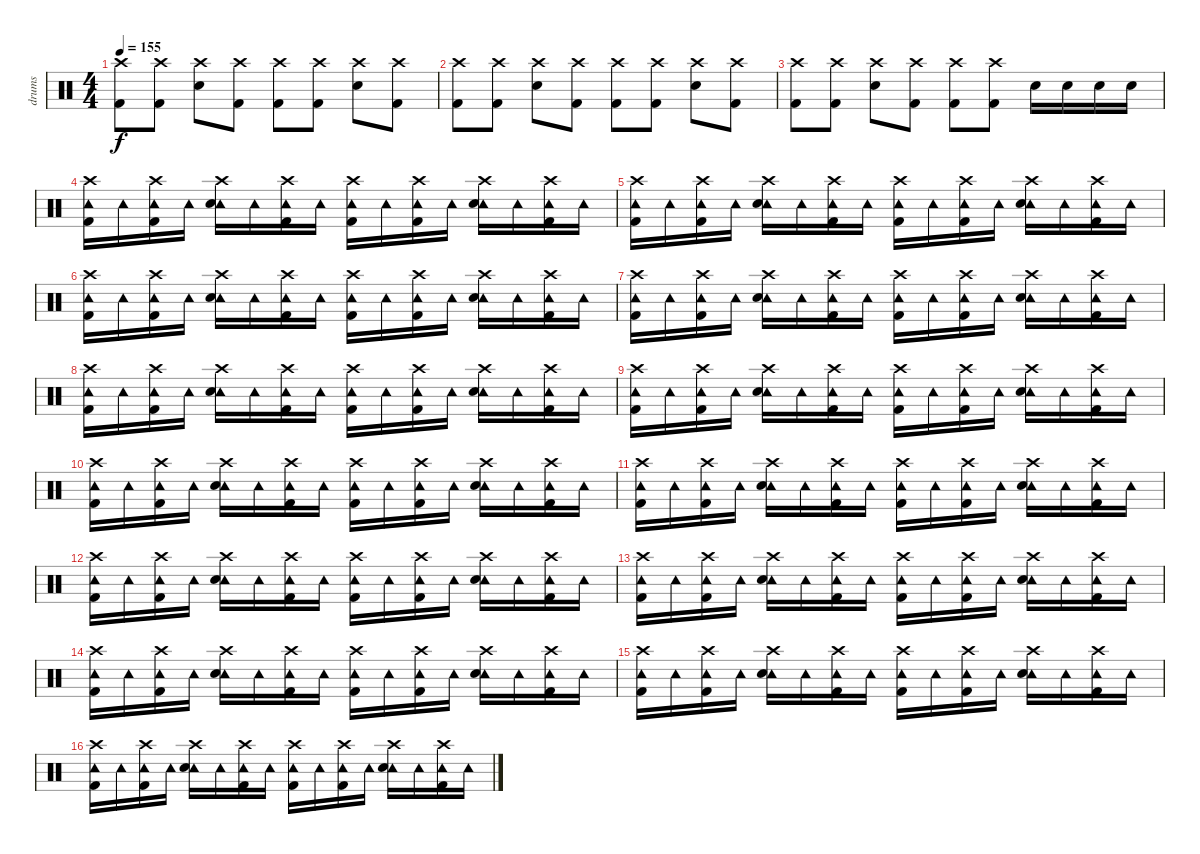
\track ("drums" "drums") {instrument percussion}
\staff {score}
\articulation defaults
\ts (4 4)
\tempo 155
\clef neutral
\ks c
("Crash high (hit)" "Kick (hit) 2").8{dy f} ("Crash high (hit)" "Kick (hit) 2").8 ("Crash high (hit)" "Snare (hit) 2").8 ("Crash high (hit)" "Kick (hit) 2").8 ("Crash high (hit)" "Kick (hit) 2").8 ("Crash high (hit)" "Kick (hit) 2").8 ("Crash high (hit)" "Snare (hit) 2").8 ("Crash high (hit)" "Kick (hit) 2").8 |
("Crash high (hit)" "Kick (hit) 2").8 ("Crash high (hit)" "Kick (hit) 2").8 ("Crash high (hit)" "Snare (hit) 2").8 ("Crash high (hit)" "Kick (hit) 2").8 ("Crash high (hit)" "Kick (hit) 2").8 ("Crash high (hit)" "Kick (hit) 2").8 ("Crash high (hit)" "Snare (hit) 2").8 ("Crash high (hit)" "Kick (hit) 2").8 |
("Crash high (hit)" "Kick (hit) 2").8 ("Crash high (hit)" "Kick (hit) 2").8 ("Crash high (hit)" "Snare (hit) 2").8 ("Crash high (hit)" "Kick (hit) 2").8 ("Crash high (hit)" "Kick (hit) 2").8 ("Crash high (hit)" "Kick (hit) 2").8 "Snare (hit) 2".16 "Snare (hit) 2".16 "Snare (hit) 2".16 "Snare (hit) 2".16 |
("Tambourine (hit)" "Crash high (hit)" "Kick (hit) 2").16 "Tambourine (hit)".16 ("Tambourine (hit)" "Crash high (hit)" "Kick (hit) 2").16 "Tambourine (hit)".16 ("Tambourine (hit)" "Crash high (hit)" "Snare (hit) 2").16 "Tambourine (hit)".16 ("Tambourine (hit)" "Crash high (hit)" "Kick (hit) 2").16 "Tambourine (hit)".16 ("Tambourine (hit)" "Crash high (hit)" "Kick (hit) 2").16 "Tambourine (hit)".16 ("Tambourine (hit)" "Crash high (hit)" "Kick (hit) 2").16 "Tambourine (hit)".16 ("Tambourine (hit)" "Crash high (hit)" "Snare (hit) 2").16 "Tambourine (hit)".16 ("Tambourine (hit)" "Crash high (hit)" "Kick (hit) 2").16 "Tambourine (hit)".16 |
("Tambourine (hit)" "Crash high (hit)" "Kick (hit) 2").16 "Tambourine (hit)".16 ("Tambourine (hit)" "Crash high (hit)" "Kick (hit) 2").16 "Tambourine (hit)".16 ("Tambourine (hit)" "Crash high (hit)" "Snare (hit) 2").16 "Tambourine (hit)".16 ("Tambourine (hit)" "Crash high (hit)" "Kick (hit) 2").16 "Tambourine (hit)".16 ("Tambourine (hit)" "Crash high (hit)" "Kick (hit) 2").16 "Tambourine (hit)".16 ("Tambourine (hit)" "Crash high (hit)" "Kick (hit) 2").16 "Tambourine (hit)".16 ("Tambourine (hit)" "Crash high (hit)" "Snare (hit) 2").16 "Tambourine (hit)".16 ("Tambourine (hit)" "Crash high (hit)" "Kick (hit) 2").16 "Tambourine (hit)".16 |
("Tambourine (hit)" "Crash high (hit)" "Kick (hit) 2").16 "Tambourine (hit)".16 ("Tambourine (hit)" "Crash high (hit)" "Kick (hit) 2").16 "Tambourine (hit)".16 ("Tambourine (hit)" "Crash high (hit)" "Snare (hit) 2").16 "Tambourine (hit)".16 ("Tambourine (hit)" "Crash high (hit)" "Kick (hit) 2").16 "Tambourine (hit)".16 ("Tambourine (hit)" "Crash high (hit)" "Kick (hit) 2").16 "Tambourine (hit)".16 ("Tambourine (hit)" "Crash high (hit)" "Kick (hit) 2").16 "Tambourine (hit)".16 ("Tambourine (hit)" "Crash high (hit)" "Snare (hit) 2").16 "Tambourine (hit)".16 ("Tambourine (hit)" "Crash high (hit)" "Kick (hit) 2").16 "Tambourine (hit)".16 |
("Tambourine (hit)" "Crash high (hit)" "Kick (hit) 2").16 "Tambourine (hit)".16 ("Tambourine (hit)" "Crash high (hit)" "Kick (hit) 2").16 "Tambourine (hit)".16 ("Tambourine (hit)" "Crash high (hit)" "Snare (hit) 2").16 "Tambourine (hit)".16 ("Tambourine (hit)" "Crash high (hit)" "Kick (hit) 2").16 "Tambourine (hit)".16 ("Tambourine (hit)" "Crash high (hit)" "Kick (hit) 2").16 "Tambourine (hit)".16 ("Tambourine (hit)" "Crash high (hit)" "Kick (hit) 2").16 "Tambourine (hit)".16 ("Tambourine (hit)" "Crash high (hit)" "Snare (hit) 2").16 "Tambourine (hit)".16 ("Tambourine (hit)" "Crash high (hit)" "Kick (hit) 2").16 "Tambourine (hit)".16 |
("Tambourine (hit)" "Crash high (hit)" "Kick (hit) 2").16 "Tambourine (hit)".16 ("Tambourine (hit)" "Crash high (hit)" "Kick (hit) 2").16 "Tambourine (hit)".16 ("Tambourine (hit)" "Crash high (hit)" "Snare (hit) 2").16 "Tambourine (hit)".16 ("Tambourine (hit)" "Crash high (hit)" "Kick (hit) 2").16 "Tambourine (hit)".16 ("Tambourine (hit)" "Crash high (hit)" "Kick (hit) 2").16 "Tambourine (hit)".16 ("Tambourine (hit)" "Crash high (hit)" "Kick (hit) 2").16 "Tambourine (hit)".16 ("Tambourine (hit)" "Crash high (hit)" "Snare (hit) 2").16 "Tambourine (hit)".16 ("Tambourine (hit)" "Crash high (hit)" "Kick (hit) 2").16 "Tambourine (hit)".16 |
("Tambourine (hit)" "Crash high (hit)" "Kick (hit) 2").16 "Tambourine (hit)".16 ("Tambourine (hit)" "Crash high (hit)" "Kick (hit) 2").16 "Tambourine (hit)".16 ("Tambourine (hit)" "Crash high (hit)" "Snare (hit) 2").16 "Tambourine (hit)".16 ("Tambourine (hit)" "Crash high (hit)" "Kick (hit) 2").16 "Tambourine (hit)".16 ("Tambourine (hit)" "Crash high (hit)" "Kick (hit) 2").16 "Tambourine (hit)".16 ("Tambourine (hit)" "Crash high (hit)" "Kick (hit) 2").16 "Tambourine (hit)".16 ("Tambourine (hit)" "Crash high (hit)" "Snare (hit) 2").16 "Tambourine (hit)".16 ("Tambourine (hit)" "Crash high (hit)" "Kick (hit) 2").16 "Tambourine (hit)".16 |
("Tambourine (hit)" "Crash high (hit)" "Kick (hit) 2").16 "Tambourine (hit)".16 ("Tambourine (hit)" "Crash high (hit)" "Kick (hit) 2").16 "Tambourine (hit)".16 ("Tambourine (hit)" "Crash high (hit)" "Snare (hit) 2").16 "Tambourine (hit)".16 ("Tambourine (hit)" "Crash high (hit)" "Kick (hit) 2").16 "Tambourine (hit)".16 ("Tambourine (hit)" "Crash high (hit)" "Kick (hit) 2").16 "Tambourine (hit)".16 ("Tambourine (hit)" "Crash high (hit)" "Kick (hit) 2").16 "Tambourine (hit)".16 ("Tambourine (hit)" "Crash high (hit)" "Snare (hit) 2").16 "Tambourine (hit)".16 ("Tambourine (hit)" "Crash high (hit)" "Kick (hit) 2").16 "Tambourine (hit)".16 |
("Tambourine (hit)" "Crash high (hit)" "Kick (hit) 2").16 "Tambourine (hit)".16 ("Tambourine (hit)" "Crash high (hit)" "Kick (hit) 2").16 "Tambourine (hit)".16 ("Tambourine (hit)" "Crash high (hit)" "Snare (hit) 2").16 "Tambourine (hit)".16 ("Tambourine (hit)" "Crash high (hit)" "Kick (hit) 2").16 "Tambourine (hit)".16 ("Tambourine (hit)" "Crash high (hit)" "Kick (hit) 2").16 "Tambourine (hit)".16 ("Tambourine (hit)" "Crash high (hit)" "Kick (hit) 2").16 "Tambourine (hit)".16 ("Tambourine (hit)" "Crash high (hit)" "Snare (hit) 2").16 "Tambourine (hit)".16 ("Tambourine (hit)" "Crash high (hit)" "Kick (hit) 2").16 "Tambourine (hit)".16 |
("Tambourine (hit)" "Crash high (hit)" "Kick (hit) 2").16 "Tambourine (hit)".16 ("Tambourine (hit)" "Crash high (hit)" "Kick (hit) 2").16 "Tambourine (hit)".16 ("Tambourine (hit)" "Crash high (hit)" "Snare (hit) 2").16 "Tambourine (hit)".16 ("Tambourine (hit)" "Crash high (hit)" "Kick (hit) 2").16 "Tambourine (hit)".16 ("Tambourine (hit)" "Crash high (hit)" "Kick (hit) 2").16 "Tambourine (hit)".16 ("Tambourine (hit)" "Crash high (hit)" "Kick (hit) 2").16 "Tambourine (hit)".16 ("Tambourine (hit)" "Crash high (hit)" "Snare (hit) 2").16 "Tambourine (hit)".16 ("Tambourine (hit)" "Crash high (hit)" "Kick (hit) 2").16 "Tambourine (hit)".16 |
("Tambourine (hit)" "Crash high (hit)" "Kick (hit) 2").16 "Tambourine (hit)".16 ("Tambourine (hit)" "Crash high (hit)" "Kick (hit) 2").16 "Tambourine (hit)".16 ("Tambourine (hit)" "Crash high (hit)" "Snare (hit) 2").16 "Tambourine (hit)".16 ("Tambourine (hit)" "Crash high (hit)" "Kick (hit) 2").16 "Tambourine (hit)".16 ("Tambourine (hit)" "Crash high (hit)" "Kick (hit) 2").16 "Tambourine (hit)".16 ("Tambourine (hit)" "Crash high (hit)" "Kick (hit) 2").16 "Tambourine (hit)".16 ("Tambourine (hit)" "Crash high (hit)" "Snare (hit) 2").16 "Tambourine (hit)".16 ("Tambourine (hit)" "Crash high (hit)" "Kick (hit) 2").16 "Tambourine (hit)".16 |
("Tambourine (hit)" "Crash high (hit)" "Kick (hit) 2").16 "Tambourine (hit)".16 ("Tambourine (hit)" "Crash high (hit)" "Kick (hit) 2").16 "Tambourine (hit)".16 ("Tambourine (hit)" "Crash high (hit)" "Snare (hit) 2").16 "Tambourine (hit)".16 ("Tambourine (hit)" "Crash high (hit)" "Kick (hit) 2").16 "Tambourine (hit)".16 ("Tambourine (hit)" "Crash high (hit)" "Kick (hit) 2").16 "Tambourine (hit)".16 ("Tambourine (hit)" "Crash high (hit)" "Kick (hit) 2").16 "Tambourine (hit)".16 ("Tambourine (hit)" "Crash high (hit)" "Snare (hit) 2").16 "Tambourine (hit)".16 ("Tambourine (hit)" "Crash high (hit)" "Kick (hit) 2").16 "Tambourine (hit)".16 |
("Tambourine (hit)" "Crash high (hit)" "Kick (hit) 2").16 "Tambourine (hit)".16 ("Tambourine (hit)" "Crash high (hit)" "Kick (hit) 2").16 "Tambourine (hit)".16 ("Tambourine (hit)" "Crash high (hit)" "Snare (hit) 2").16 "Tambourine (hit)".16 ("Tambourine (hit)" "Crash high (hit)" "Kick (hit) 2").16 "Tambourine (hit)".16 ("Tambourine (hit)" "Crash high (hit)" "Kick (hit) 2").16 "Tambourine (hit)".16 ("Tambourine (hit)" "Crash high (hit)" "Kick (hit) 2").16 "Tambourine (hit)".16 ("Tambourine (hit)" "Crash high (hit)" "Snare (hit) 2").16 "Tambourine (hit)".16 ("Tambourine (hit)" "Crash high (hit)" "Kick (hit) 2").16 "Tambourine (hit)".16 |
("Tambourine (hit)" "Crash high (hit)" "Kick (hit) 2").16 "Tambourine (hit)".16 ("Tambourine (hit)" "Crash high (hit)" "Kick (hit) 2").16 "Tambourine (hit)".16 ("Tambourine (hit)" "Crash high (hit)" "Snare (hit) 2").16 "Tambourine (hit)".16 ("Tambourine (hit)" "Crash high (hit)" "Kick (hit) 2").16 "Tambourine (hit)".16 ("Tambourine (hit)" "Crash high (hit)" "Kick (hit) 2").16 "Tambourine (hit)".16 ("Tambourine (hit)" "Crash high (hit)" "Kick (hit) 2").16 "Tambourine (hit)".16 ("Tambourine (hit)" "Crash high (hit)" "Snare (hit) 2").16 "Tambourine (hit)".16 ("Tambourine (hit)" "Crash high (hit)" "Kick (hit) 2").16 "Tambourine (hit)".16
